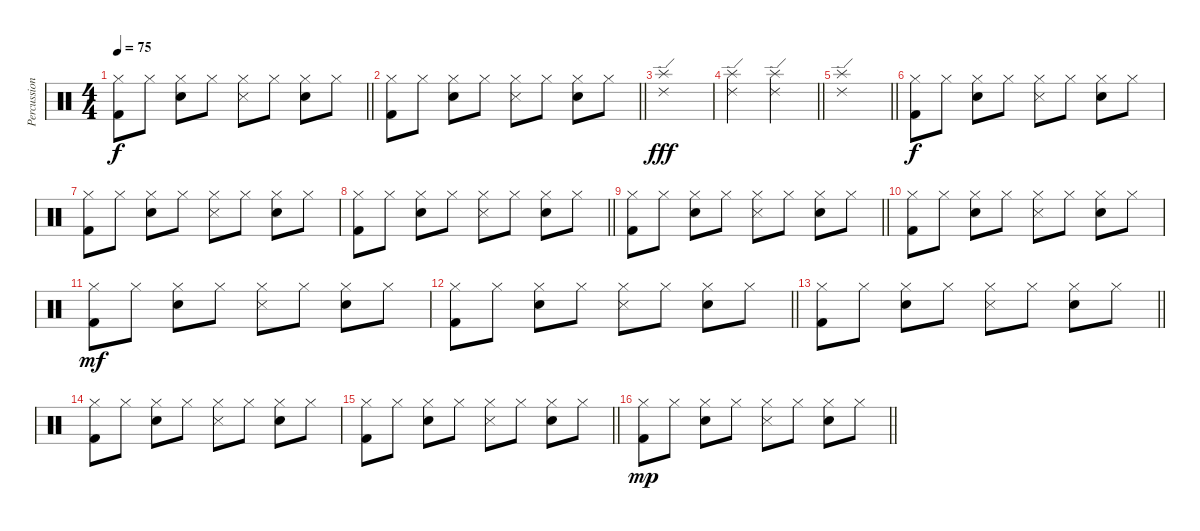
\track ("Percussion" "Percussion") {instrument percussion}
\staff {score}
\articulation defaults
\ts (4 4)
\tempo 75
\clef neutral
\barLineRight lightlight
\ks c
("Kick (hit) 2" "Hi-Hat (closed)").8{dy f} "Hi-Hat (closed)".8 ("Snare (hit) 2" "Hi-Hat (closed)").8 "Hi-Hat (closed)".8 ("Snare (side stick) 3" "Hi-Hat (closed)").8 "Hi-Hat (closed)".8 ("Snare (hit) 2" "Hi-Hat (closed)").8 "Hi-Hat (closed)".8 |
\barLineRight lightlight
("Kick (hit) 2" "Hi-Hat (closed)").8 "Hi-Hat (closed)".8 ("Snare (hit) 2" "Hi-Hat (closed)").8 "Hi-Hat (closed)".8 ("Snare (side stick) 3" "Hi-Hat (closed)").8 "Hi-Hat (closed)".8 ("Snare (hit) 2" "Hi-Hat (closed)").8 "Hi-Hat (closed)".8 |
("Splash (hit)" "Ride (edge) 2").1{dy fff} |
\barLineRight lightlight
("Ride (edge) 2" "Splash (hit)").2 ("Ride (edge) 2" "Splash (hit)").2 |
\barLineRight lightlight
("Splash (hit)" "Ride (edge) 2").1 |
("Kick (hit) 2" "Hi-Hat (closed)").8{dy f} "Hi-Hat (closed)".8 ("Snare (hit) 2" "Hi-Hat (closed)").8 "Hi-Hat (closed)".8 ("Snare (side stick) 3" "Hi-Hat (closed)").8 "Hi-Hat (closed)".8 ("Snare (hit) 2" "Hi-Hat (closed)").8 "Hi-Hat (closed)".8 |
("Kick (hit) 2" "Hi-Hat (closed)").8 "Hi-Hat (closed)".8 ("Snare (hit) 2" "Hi-Hat (closed)").8 "Hi-Hat (closed)".8 ("Snare (side stick) 3" "Hi-Hat (closed)").8 "Hi-Hat (closed)".8 ("Snare (hit) 2" "Hi-Hat (closed)").8 "Hi-Hat (closed)".8 |
\barLineRight lightlight
("Kick (hit) 2" "Hi-Hat (closed)").8 "Hi-Hat (closed)".8 ("Snare (hit) 2" "Hi-Hat (closed)").8 "Hi-Hat (closed)".8 ("Snare (side stick) 3" "Hi-Hat (closed)").8 "Hi-Hat (closed)".8 ("Snare (hit) 2" "Hi-Hat (closed)").8 "Hi-Hat (closed)".8 |
\barLineRight lightlight
("Kick (hit) 2" "Hi-Hat (closed)").8 "Hi-Hat (closed)".8 ("Snare (hit) 2" "Hi-Hat (closed)").8 "Hi-Hat (closed)".8 ("Snare (side stick) 3" "Hi-Hat (closed)").8 "Hi-Hat (closed)".8 ("Snare (hit) 2" "Hi-Hat (closed)").8 "Hi-Hat (closed)".8 |
("Kick (hit) 2" "Hi-Hat (closed)").8 "Hi-Hat (closed)".8 ("Snare (hit) 2" "Hi-Hat (closed)").8 "Hi-Hat (closed)".8 ("Snare (side stick) 3" "Hi-Hat (closed)").8 "Hi-Hat (closed)".8 ("Snare (hit) 2" "Hi-Hat (closed)").8 "Hi-Hat (closed)".8 |
("Kick (hit) 2" "Hi-Hat (closed)").8{dy mf} "Hi-Hat (closed)".8 ("Snare (hit) 2" "Hi-Hat (closed)").8 "Hi-Hat (closed)".8 ("Snare (side stick) 3" "Hi-Hat (closed)").8 "Hi-Hat (closed)".8 ("Snare (hit) 2" "Hi-Hat (closed)").8 "Hi-Hat (closed)".8 |
\barLineRight lightlight
("Kick (hit) 2" "Hi-Hat (closed)").8 "Hi-Hat (closed)".8 ("Snare (hit) 2" "Hi-Hat (closed)").8 "Hi-Hat (closed)".8 ("Snare (side stick) 3" "Hi-Hat (closed)").8 "Hi-Hat (closed)".8 ("Snare (hit) 2" "Hi-Hat (closed)").8 "Hi-Hat (closed)".8 |
\barLineRight lightlight
("Kick (hit) 2" "Hi-Hat (closed)").8 "Hi-Hat (closed)".8 ("Snare (hit) 2" "Hi-Hat (closed)").8 "Hi-Hat (closed)".8 ("Snare (side stick) 3" "Hi-Hat (closed)").8 "Hi-Hat (closed)".8 ("Snare (hit) 2" "Hi-Hat (closed)").8 "Hi-Hat (closed)".8 |
("Kick (hit) 2" "Hi-Hat (closed)").8 "Hi-Hat (closed)".8 ("Snare (hit) 2" "Hi-Hat (closed)").8 "Hi-Hat (closed)".8 ("Snare (side stick) 3" "Hi-Hat (closed)").8 "Hi-Hat (closed)".8 ("Snare (hit) 2" "Hi-Hat (closed)").8 "Hi-Hat (closed)".8 |
\barLineRight lightlight
("Kick (hit) 2" "Hi-Hat (closed)").8 "Hi-Hat (closed)".8 ("Snare (hit) 2" "Hi-Hat (closed)").8 "Hi-Hat (closed)".8 ("Snare (side stick) 3" "Hi-Hat (closed)").8 "Hi-Hat (closed)".8 ("Snare (hit) 2" "Hi-Hat (closed)").8 "Hi-Hat (closed)".8 |
\barLineRight lightlight
("Kick (hit) 2" "Hi-Hat (closed)").8{dy mp} "Hi-Hat (closed)".8 ("Snare (hit) 2" "Hi-Hat (closed)").8 "Hi-Hat (closed)".8 ("Snare (side stick) 3" "Hi-Hat (closed)").8 "Hi-Hat (closed)".8 ("Snare (hit) 2" "Hi-Hat (closed)").8 "Hi-Hat (closed)".8
